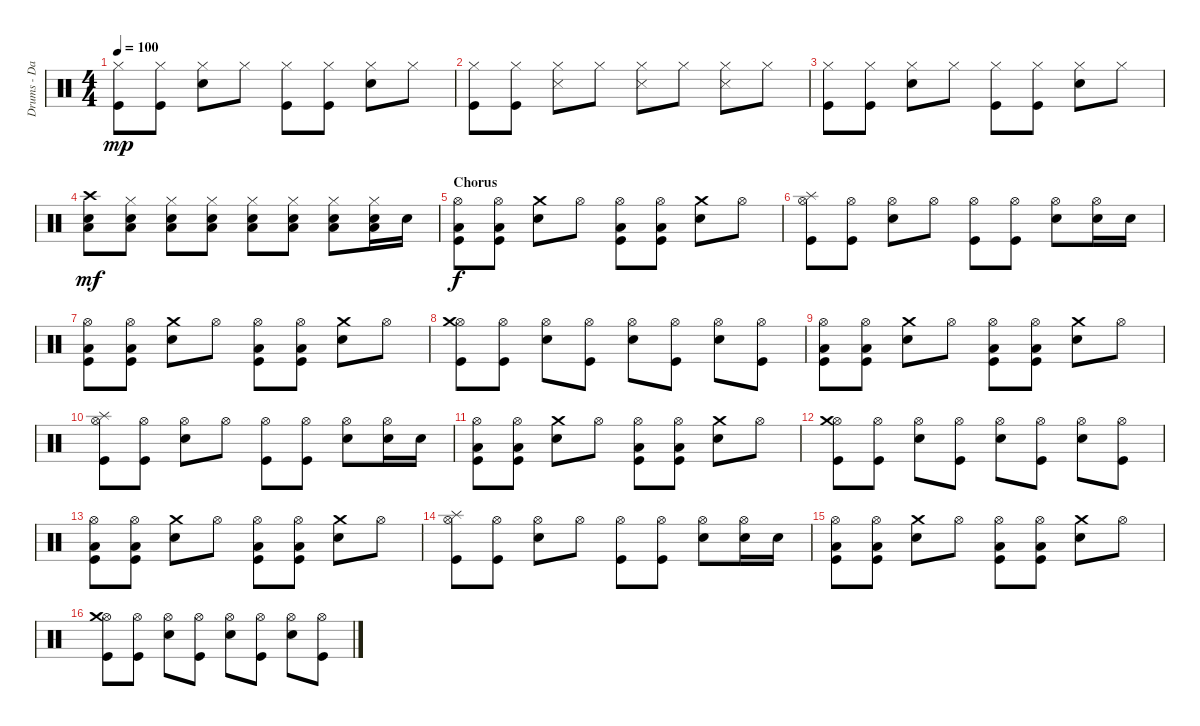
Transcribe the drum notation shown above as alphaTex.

\track ("Drums - Dave Grohl" "Drums - Da") {instrument percussion}
\staff {score}
\articulation defaults
\ts (4 4)
\tempo 100
\clef neutral
\ks c
("Kick (hit)" "Hi-Hat (closed)").8{dy mp} ("Hi-Hat (closed)" "Kick (hit)").8 ("Hi-Hat (closed)" "Snare (hit) 2").8 "Hi-Hat (closed)".8 ("Kick (hit)" "Hi-Hat (closed)").8 ("Kick (hit)" "Hi-Hat (closed)").8 ("Snare (hit) 2" "Hi-Hat (closed)").8 "Hi-Hat (closed)".8 |
("Kick (hit)" "Hi-Hat (closed)").8 ("Kick (hit)" "Hi-Hat (closed)").8 ("Hi-Hat (closed)" "Snare (side stick) 3").8 "Hi-Hat (closed)".8 ("Hi-Hat (closed)" "Snare (side stick) 3").8 "Hi-Hat (closed)".8 ("Hi-Hat (closed)" "Snare (side stick) 3").8 "Hi-Hat (closed)".8 |
("Kick (hit)" "Hi-Hat (closed)").8 ("Hi-Hat (closed)" "Kick (hit)").8 ("Hi-Hat (closed)" "Snare (hit) 2").8 "Hi-Hat (closed)".8 ("Kick (hit)" "Hi-Hat (closed)").8 ("Kick (hit)" "Hi-Hat (closed)").8 ("Snare (hit) 2" "Hi-Hat (closed)").8 "Hi-Hat (closed)".8 |
("Crash high (hit)" "Snare (hit) 2" "Low Tom (hit)").8{dy mf} ("Snare (hit) 2" "Low Tom (hit)" "Hi-Hat (closed)").8 ("Snare (hit) 2" "Low Tom (hit)" "Hi-Hat (closed)").8 ("Snare (hit) 2" "Low Tom (hit)" "Hi-Hat (closed)").8 ("Snare (hit) 2" "Low Tom (hit)" "Hi-Hat (closed)").8 ("Snare (hit) 2" "Low Tom (hit)" "Hi-Hat (closed)").8 ("Snare (hit) 2" "Low Tom (hit)" "Hi-Hat (closed)").8 ("Snare (hit) 2" "Low Tom (hit)" "Hi-Hat (closed)").16 "Snare (hit) 2".16 |
\section ("" "Chorus")
("Kick (hit)" "Low Tom (hit)" "Hi-Hat (open)").8{dy f} ("Kick (hit)" "Low Tom (hit)" "Hi-Hat (open)").8 ("Snare (hit) 2" "Crash medium (hit)").8 "Hi-Hat (open)".8 ("Kick (hit)" "Low Tom (hit)" "Hi-Hat (open)").8 ("Kick (hit)" "Low Tom (hit)" "Hi-Hat (open)").8 ("Snare (hit) 2" "Crash medium (hit)").8 "Hi-Hat (open)".8 |
("Kick (hit)" "Hi-Hat (open)" "Splash (hit)").8 ("Kick (hit)" "Hi-Hat (open)").8 ("Snare (hit) 2" "Hi-Hat (open)").8 "Hi-Hat (open)".8 ("Kick (hit)" "Hi-Hat (open)").8 ("Kick (hit)" "Hi-Hat (open)").8 ("Snare (hit) 2" "Hi-Hat (open)").8 ("Snare (hit) 2" "Hi-Hat (open)").16 "Snare (hit) 2".16 |
("Kick (hit)" "Low Tom (hit)" "Hi-Hat (open)").8 ("Kick (hit)" "Low Tom (hit)" "Hi-Hat (open)").8 ("Snare (hit) 2" "Crash medium (hit)").8 "Hi-Hat (open)".8 ("Kick (hit)" "Low Tom (hit)" "Hi-Hat (open)").8 ("Kick (hit)" "Low Tom (hit)" "Hi-Hat (open)").8 ("Snare (hit) 2" "Crash medium (hit)").8 "Hi-Hat (open)".8 |
("Kick (hit)" "Hi-Hat (open)" "Crash medium (hit)").8 ("Kick (hit)" "Hi-Hat (open)").8 ("Snare (hit) 2" "Hi-Hat (open)").8 ("Kick (hit)" "Hi-Hat (open)").8 ("Snare (hit) 2" "Hi-Hat (open)").8 ("Kick (hit)" "Hi-Hat (open)").8 ("Snare (hit) 2" "Hi-Hat (open)").8 ("Kick (hit)" "Hi-Hat (open)").8 |
("Kick (hit)" "Low Tom (hit)" "Hi-Hat (open)").8 ("Kick (hit)" "Low Tom (hit)" "Hi-Hat (open)").8 ("Snare (hit) 2" "Crash medium (hit)").8 "Hi-Hat (open)".8 ("Kick (hit)" "Low Tom (hit)" "Hi-Hat (open)").8 ("Kick (hit)" "Low Tom (hit)" "Hi-Hat (open)").8 ("Snare (hit) 2" "Crash medium (hit)").8 "Hi-Hat (open)".8 |
("Kick (hit)" "Hi-Hat (open)" "Splash (hit)").8 ("Kick (hit)" "Hi-Hat (open)").8 ("Snare (hit) 2" "Hi-Hat (open)").8 "Hi-Hat (open)".8 ("Kick (hit)" "Hi-Hat (open)").8 ("Kick (hit)" "Hi-Hat (open)").8 ("Snare (hit) 2" "Hi-Hat (open)").8 ("Snare (hit) 2" "Hi-Hat (open)").16 "Snare (hit) 2".16 |
("Kick (hit)" "Low Tom (hit)" "Hi-Hat (open)").8 ("Kick (hit)" "Low Tom (hit)" "Hi-Hat (open)").8 ("Snare (hit) 2" "Crash medium (hit)").8 "Hi-Hat (open)".8 ("Kick (hit)" "Low Tom (hit)" "Hi-Hat (open)").8 ("Kick (hit)" "Low Tom (hit)" "Hi-Hat (open)").8 ("Snare (hit) 2" "Crash medium (hit)").8 "Hi-Hat (open)".8 |
("Kick (hit)" "Hi-Hat (open)" "Crash medium (hit)").8 ("Kick (hit)" "Hi-Hat (open)").8 ("Snare (hit) 2" "Hi-Hat (open)").8 ("Kick (hit)" "Hi-Hat (open)").8 ("Snare (hit) 2" "Hi-Hat (open)").8 ("Kick (hit)" "Hi-Hat (open)").8 ("Snare (hit) 2" "Hi-Hat (open)").8 ("Kick (hit)" "Hi-Hat (open)").8 |
("Kick (hit)" "Low Tom (hit)" "Hi-Hat (open)").8 ("Kick (hit)" "Low Tom (hit)" "Hi-Hat (open)").8 ("Snare (hit) 2" "Crash medium (hit)").8 "Hi-Hat (open)".8 ("Kick (hit)" "Low Tom (hit)" "Hi-Hat (open)").8 ("Kick (hit)" "Low Tom (hit)" "Hi-Hat (open)").8 ("Snare (hit) 2" "Crash medium (hit)").8 "Hi-Hat (open)".8 |
("Kick (hit)" "Hi-Hat (open)" "Splash (hit)").8 ("Kick (hit)" "Hi-Hat (open)").8 ("Snare (hit) 2" "Hi-Hat (open)").8 "Hi-Hat (open)".8 ("Kick (hit)" "Hi-Hat (open)").8 ("Kick (hit)" "Hi-Hat (open)").8 ("Snare (hit) 2" "Hi-Hat (open)").8 ("Snare (hit) 2" "Hi-Hat (open)").16 "Snare (hit) 2".16 |
("Kick (hit)" "Low Tom (hit)" "Hi-Hat (open)").8 ("Kick (hit)" "Low Tom (hit)" "Hi-Hat (open)").8 ("Snare (hit) 2" "Crash medium (hit)").8 "Hi-Hat (open)".8 ("Kick (hit)" "Low Tom (hit)" "Hi-Hat (open)").8 ("Kick (hit)" "Low Tom (hit)" "Hi-Hat (open)").8 ("Snare (hit) 2" "Crash medium (hit)").8 "Hi-Hat (open)".8 |
("Kick (hit)" "Hi-Hat (open)" "Crash medium (hit)").8 ("Kick (hit)" "Hi-Hat (open)").8 ("Snare (hit) 2" "Hi-Hat (open)").8 ("Kick (hit)" "Hi-Hat (open)").8 ("Snare (hit) 2" "Hi-Hat (open)").8 ("Kick (hit)" "Hi-Hat (open)").8 ("Snare (hit) 2" "Hi-Hat (open)").8 ("Kick (hit)" "Hi-Hat (open)").8
